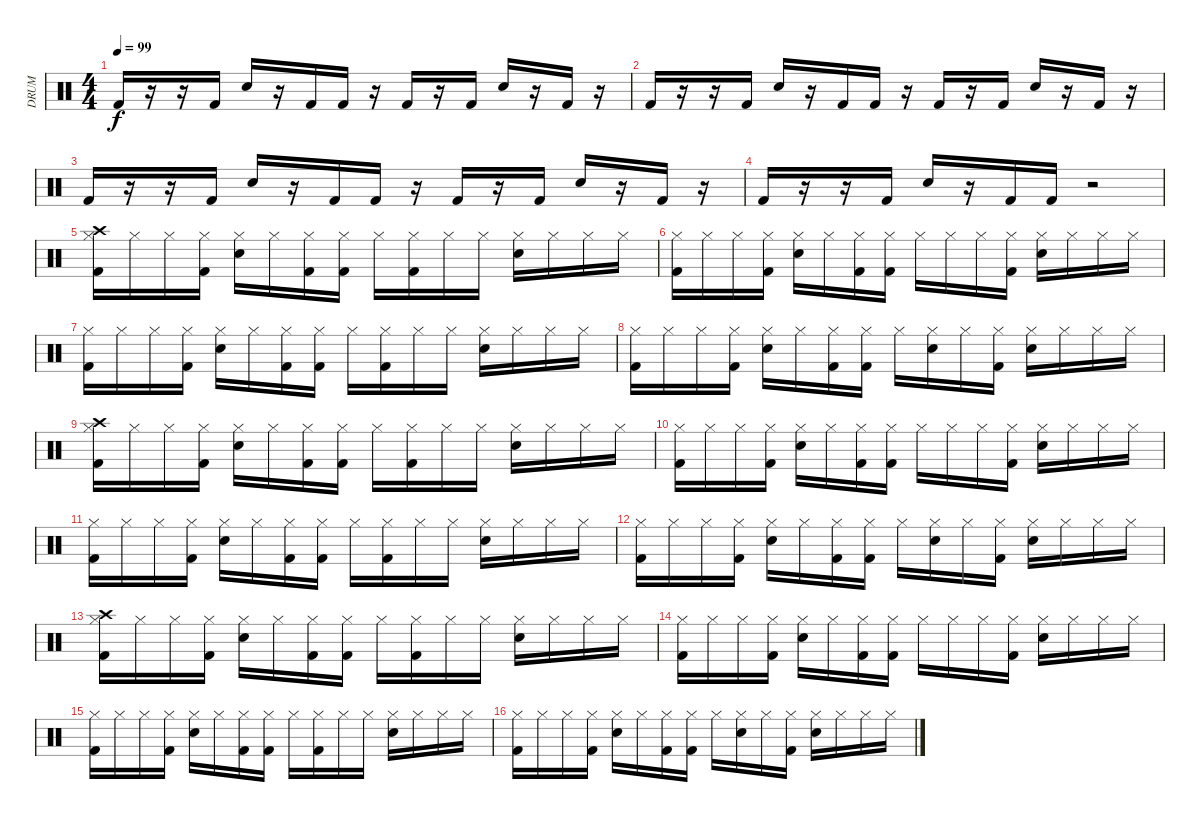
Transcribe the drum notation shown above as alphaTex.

\track ("DRUM" "DRUM") {instrument percussion}
\staff {score}
\articulation defaults
\ts (4 4)
\tempo 99
\clef neutral
\ks c "Kick (hit) 2".16{dy f}
r.16 r.16 "Kick (hit) 2".16 "Snare (hit) 2".16 r.16 "Kick (hit) 2".16 "Kick (hit) 2".16 r.16 "Kick (hit) 2".16 r.16 "Kick (hit) 2".16 "Snare (hit) 2".16 r.16 "Kick (hit) 2".16 r.16 |
"Kick (hit) 2".16 r.16 r.16 "Kick (hit) 2".16 "Snare (hit) 2".16 r.16 "Kick (hit) 2".16 "Kick (hit) 2".16 r.16 "Kick (hit) 2".16 r.16 "Kick (hit) 2".16 "Snare (hit) 2".16 r.16 "Kick (hit) 2".16 r.16 |
"Kick (hit) 2".16 r.16 r.16 "Kick (hit) 2".16 "Snare (hit) 2".16 r.16 "Kick (hit) 2".16 "Kick (hit) 2".16 r.16 "Kick (hit) 2".16 r.16 "Kick (hit) 2".16 "Snare (hit) 2".16 r.16 "Kick (hit) 2".16 r.16 |
"Kick (hit) 2".16 r.16 r.16 "Kick (hit) 2".16 "Snare (hit) 2".16 r.16 "Kick (hit) 2".16 "Kick (hit) 2".16 r.2 |
("Crash high (hit)" "Hi-Hat (closed)" "Kick (hit) 2").16 "Hi-Hat (closed)".16 "Hi-Hat (closed)".16 ("Hi-Hat (closed)" "Kick (hit) 2").16 ("Hi-Hat (closed)" "Snare (hit) 2").16 "Hi-Hat (closed)".16 ("Hi-Hat (closed)" "Kick (hit) 2").16 ("Hi-Hat (closed)" "Kick (hit) 2").16 "Hi-Hat (closed)".16 ("Hi-Hat (closed)" "Kick (hit) 2").16 "Hi-Hat (closed)".16 "Hi-Hat (closed)".16 ("Hi-Hat (closed)" "Snare (hit) 2").16 "Hi-Hat (closed)".16 "Hi-Hat (closed)".16 "Hi-Hat (closed)".16 |
("Hi-Hat (closed)" "Kick (hit) 2").16 "Hi-Hat (closed)".16 "Hi-Hat (closed)".16 ("Hi-Hat (closed)" "Kick (hit) 2").16 ("Hi-Hat (closed)" "Snare (hit) 2").16 "Hi-Hat (closed)".16 ("Hi-Hat (closed)" "Kick (hit) 2").16 ("Hi-Hat (closed)" "Kick (hit) 2").16 "Hi-Hat (closed)".16 "Hi-Hat (closed)".16 "Hi-Hat (closed)".16 ("Hi-Hat (closed)" "Kick (hit) 2").16 ("Hi-Hat (closed)" "Snare (hit) 2").16 "Hi-Hat (closed)".16 "Hi-Hat (closed)".16 "Hi-Hat (closed)".16 |
("Hi-Hat (closed)" "Kick (hit) 2").16 "Hi-Hat (closed)".16 "Hi-Hat (closed)".16 ("Hi-Hat (closed)" "Kick (hit) 2").16 ("Hi-Hat (closed)" "Snare (hit) 2").16 "Hi-Hat (closed)".16 ("Hi-Hat (closed)" "Kick (hit) 2").16 ("Hi-Hat (closed)" "Kick (hit) 2").16 "Hi-Hat (closed)".16 ("Hi-Hat (closed)" "Kick (hit) 2").16 "Hi-Hat (closed)".16 "Hi-Hat (closed)".16 ("Hi-Hat (closed)" "Snare (hit) 2").16 "Hi-Hat (closed)".16 "Hi-Hat (closed)".16 "Hi-Hat (closed)".16 |
("Hi-Hat (closed)" "Kick (hit) 2").16 "Hi-Hat (closed)".16 "Hi-Hat (closed)".16 ("Hi-Hat (closed)" "Kick (hit) 2").16 ("Hi-Hat (closed)" "Snare (hit) 2").16 "Hi-Hat (closed)".16 ("Hi-Hat (closed)" "Kick (hit) 2").16 ("Hi-Hat (closed)" "Kick (hit) 2").16 "Hi-Hat (closed)".16 ("Hi-Hat (closed)" "Snare (hit) 2").16 "Hi-Hat (closed)".16 ("Hi-Hat (closed)" "Kick (hit) 2").16 ("Hi-Hat (closed)" "Snare (hit) 2").16 "Hi-Hat (closed)".16 "Hi-Hat (closed)".16 "Hi-Hat (closed)".16 |
("Crash high (hit)" "Hi-Hat (closed)" "Kick (hit) 2").16 "Hi-Hat (closed)".16 "Hi-Hat (closed)".16 ("Hi-Hat (closed)" "Kick (hit) 2").16 ("Hi-Hat (closed)" "Snare (hit) 2").16 "Hi-Hat (closed)".16 ("Hi-Hat (closed)" "Kick (hit) 2").16 ("Hi-Hat (closed)" "Kick (hit) 2").16 "Hi-Hat (closed)".16 ("Hi-Hat (closed)" "Kick (hit) 2").16 "Hi-Hat (closed)".16 "Hi-Hat (closed)".16 ("Hi-Hat (closed)" "Snare (hit) 2").16 "Hi-Hat (closed)".16 "Hi-Hat (closed)".16 "Hi-Hat (closed)".16 |
("Hi-Hat (closed)" "Kick (hit) 2").16 "Hi-Hat (closed)".16 "Hi-Hat (closed)".16 ("Hi-Hat (closed)" "Kick (hit) 2").16 ("Hi-Hat (closed)" "Snare (hit) 2").16 "Hi-Hat (closed)".16 ("Hi-Hat (closed)" "Kick (hit) 2").16 ("Hi-Hat (closed)" "Kick (hit) 2").16 "Hi-Hat (closed)".16 "Hi-Hat (closed)".16 "Hi-Hat (closed)".16 ("Hi-Hat (closed)" "Kick (hit) 2").16 ("Hi-Hat (closed)" "Snare (hit) 2").16 "Hi-Hat (closed)".16 "Hi-Hat (closed)".16 "Hi-Hat (closed)".16 |
("Hi-Hat (closed)" "Kick (hit) 2").16 "Hi-Hat (closed)".16 "Hi-Hat (closed)".16 ("Hi-Hat (closed)" "Kick (hit) 2").16 ("Hi-Hat (closed)" "Snare (hit) 2").16 "Hi-Hat (closed)".16 ("Hi-Hat (closed)" "Kick (hit) 2").16 ("Hi-Hat (closed)" "Kick (hit) 2").16 "Hi-Hat (closed)".16 ("Hi-Hat (closed)" "Kick (hit) 2").16 "Hi-Hat (closed)".16 "Hi-Hat (closed)".16 ("Hi-Hat (closed)" "Snare (hit) 2").16 "Hi-Hat (closed)".16 "Hi-Hat (closed)".16 "Hi-Hat (closed)".16 |
("Hi-Hat (closed)" "Kick (hit) 2").16 "Hi-Hat (closed)".16 "Hi-Hat (closed)".16 ("Hi-Hat (closed)" "Kick (hit) 2").16 ("Hi-Hat (closed)" "Snare (hit) 2").16 "Hi-Hat (closed)".16 ("Hi-Hat (closed)" "Kick (hit) 2").16 ("Hi-Hat (closed)" "Kick (hit) 2").16 "Hi-Hat (closed)".16 ("Hi-Hat (closed)" "Snare (hit) 2").16 "Hi-Hat (closed)".16 ("Hi-Hat (closed)" "Kick (hit) 2").16 ("Hi-Hat (closed)" "Snare (hit) 2").16 "Hi-Hat (closed)".16 "Hi-Hat (closed)".16 "Hi-Hat (closed)".16 |
("Crash high (hit)" "Hi-Hat (closed)" "Kick (hit) 2").16 "Hi-Hat (closed)".16 "Hi-Hat (closed)".16 ("Hi-Hat (closed)" "Kick (hit) 2").16 ("Hi-Hat (closed)" "Snare (hit) 2").16 "Hi-Hat (closed)".16 ("Hi-Hat (closed)" "Kick (hit) 2").16 ("Hi-Hat (closed)" "Kick (hit) 2").16 "Hi-Hat (closed)".16 ("Hi-Hat (closed)" "Kick (hit) 2").16 "Hi-Hat (closed)".16 "Hi-Hat (closed)".16 ("Hi-Hat (closed)" "Snare (hit) 2").16 "Hi-Hat (closed)".16 "Hi-Hat (closed)".16 "Hi-Hat (closed)".16 |
("Hi-Hat (closed)" "Kick (hit) 2").16 "Hi-Hat (closed)".16 "Hi-Hat (closed)".16 ("Hi-Hat (closed)" "Kick (hit) 2").16 ("Hi-Hat (closed)" "Snare (hit) 2").16 "Hi-Hat (closed)".16 ("Hi-Hat (closed)" "Kick (hit) 2").16 ("Hi-Hat (closed)" "Kick (hit) 2").16 "Hi-Hat (closed)".16 "Hi-Hat (closed)".16 "Hi-Hat (closed)".16 ("Hi-Hat (closed)" "Kick (hit) 2").16 ("Hi-Hat (closed)" "Snare (hit) 2").16 "Hi-Hat (closed)".16 "Hi-Hat (closed)".16 "Hi-Hat (closed)".16 |
("Hi-Hat (closed)" "Kick (hit) 2").16 "Hi-Hat (closed)".16 "Hi-Hat (closed)".16 ("Hi-Hat (closed)" "Kick (hit) 2").16 ("Hi-Hat (closed)" "Snare (hit) 2").16 "Hi-Hat (closed)".16 ("Hi-Hat (closed)" "Kick (hit) 2").16 ("Hi-Hat (closed)" "Kick (hit) 2").16 "Hi-Hat (closed)".16 ("Hi-Hat (closed)" "Kick (hit) 2").16 "Hi-Hat (closed)".16 "Hi-Hat (closed)".16 ("Hi-Hat (closed)" "Snare (hit) 2").16 "Hi-Hat (closed)".16 "Hi-Hat (closed)".16 "Hi-Hat (closed)".16 |
("Hi-Hat (closed)" "Kick (hit) 2").16 "Hi-Hat (closed)".16 "Hi-Hat (closed)".16 ("Hi-Hat (closed)" "Kick (hit) 2").16 ("Hi-Hat (closed)" "Snare (hit) 2").16 "Hi-Hat (closed)".16 ("Hi-Hat (closed)" "Kick (hit) 2").16 ("Hi-Hat (closed)" "Kick (hit) 2").16 "Hi-Hat (closed)".16 ("Hi-Hat (closed)" "Snare (hit) 2").16 "Hi-Hat (closed)".16 ("Hi-Hat (closed)" "Kick (hit) 2").16 ("Hi-Hat (closed)" "Snare (hit) 2").16 "Hi-Hat (closed)".16 "Hi-Hat (closed)".16 "Hi-Hat (closed)".16
